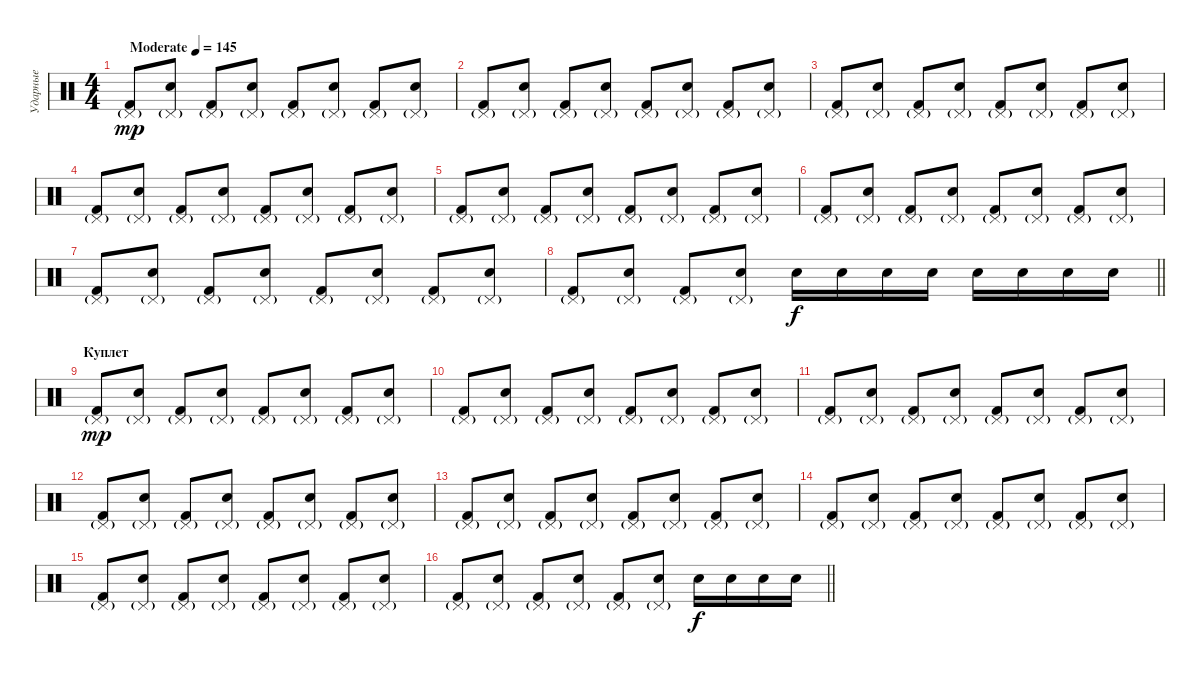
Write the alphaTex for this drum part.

\track ("Ударные" "Ударные") {instrument percussion}
\staff {score}
\articulation defaults
\ts (4 4)
\tempo (145 "Moderate")
\clef neutral
\ks c
("Pedal Hi-Hat (hit)"{g} "Kick (hit) 2").8{dy mp} ("Pedal Hi-Hat (hit)"{g} "Electric Snare (hit)").8 ("Pedal Hi-Hat (hit)"{g} "Kick (hit) 2").8 ("Pedal Hi-Hat (hit)"{g} "Electric Snare (hit)").8 ("Pedal Hi-Hat (hit)"{g} "Kick (hit) 2").8 ("Pedal Hi-Hat (hit)"{g} "Electric Snare (hit)").8 ("Pedal Hi-Hat (hit)"{g} "Kick (hit) 2").8 ("Pedal Hi-Hat (hit)"{g} "Electric Snare (hit)").8 |
("Pedal Hi-Hat (hit)"{g} "Kick (hit) 2").8 ("Pedal Hi-Hat (hit)"{g} "Electric Snare (hit)").8 ("Pedal Hi-Hat (hit)"{g} "Kick (hit) 2").8 ("Pedal Hi-Hat (hit)"{g} "Electric Snare (hit)").8 ("Pedal Hi-Hat (hit)"{g} "Kick (hit) 2").8 ("Pedal Hi-Hat (hit)"{g} "Electric Snare (hit)").8 ("Pedal Hi-Hat (hit)"{g} "Kick (hit) 2").8 ("Pedal Hi-Hat (hit)"{g} "Electric Snare (hit)").8 |
("Pedal Hi-Hat (hit)"{g} "Kick (hit) 2").8 ("Pedal Hi-Hat (hit)"{g} "Electric Snare (hit)").8 ("Pedal Hi-Hat (hit)"{g} "Kick (hit) 2").8 ("Pedal Hi-Hat (hit)"{g} "Electric Snare (hit)").8 ("Pedal Hi-Hat (hit)"{g} "Kick (hit) 2").8 ("Pedal Hi-Hat (hit)"{g} "Electric Snare (hit)").8 ("Pedal Hi-Hat (hit)"{g} "Kick (hit) 2").8 ("Pedal Hi-Hat (hit)"{g} "Electric Snare (hit)").8 |
("Pedal Hi-Hat (hit)"{g} "Kick (hit) 2").8 ("Pedal Hi-Hat (hit)"{g} "Electric Snare (hit)").8 ("Pedal Hi-Hat (hit)"{g} "Kick (hit) 2").8 ("Pedal Hi-Hat (hit)"{g} "Electric Snare (hit)").8 ("Pedal Hi-Hat (hit)"{g} "Kick (hit) 2").8 ("Pedal Hi-Hat (hit)"{g} "Electric Snare (hit)").8 ("Pedal Hi-Hat (hit)"{g} "Kick (hit) 2").8 ("Pedal Hi-Hat (hit)"{g} "Electric Snare (hit)").8 |
("Pedal Hi-Hat (hit)"{g} "Kick (hit) 2").8 ("Pedal Hi-Hat (hit)"{g} "Electric Snare (hit)").8 ("Pedal Hi-Hat (hit)"{g} "Kick (hit) 2").8 ("Pedal Hi-Hat (hit)"{g} "Electric Snare (hit)").8 ("Pedal Hi-Hat (hit)"{g} "Kick (hit) 2").8 ("Pedal Hi-Hat (hit)"{g} "Electric Snare (hit)").8 ("Pedal Hi-Hat (hit)"{g} "Kick (hit) 2").8 ("Pedal Hi-Hat (hit)"{g} "Electric Snare (hit)").8 |
("Pedal Hi-Hat (hit)"{g} "Kick (hit) 2").8 ("Pedal Hi-Hat (hit)"{g} "Electric Snare (hit)").8 ("Pedal Hi-Hat (hit)"{g} "Kick (hit) 2").8 ("Pedal Hi-Hat (hit)"{g} "Electric Snare (hit)").8 ("Pedal Hi-Hat (hit)"{g} "Kick (hit) 2").8 ("Pedal Hi-Hat (hit)"{g} "Electric Snare (hit)").8 ("Pedal Hi-Hat (hit)"{g} "Kick (hit) 2").8 ("Pedal Hi-Hat (hit)"{g} "Electric Snare (hit)").8 |
("Pedal Hi-Hat (hit)"{g} "Kick (hit) 2").8 ("Pedal Hi-Hat (hit)"{g} "Electric Snare (hit)").8 ("Pedal Hi-Hat (hit)"{g} "Kick (hit) 2").8 ("Pedal Hi-Hat (hit)"{g} "Electric Snare (hit)").8 ("Pedal Hi-Hat (hit)"{g} "Kick (hit) 2").8 ("Pedal Hi-Hat (hit)"{g} "Electric Snare (hit)").8 ("Pedal Hi-Hat (hit)"{g} "Kick (hit) 2").8 ("Pedal Hi-Hat (hit)"{g} "Electric Snare (hit)").8 |
\barLineRight lightlight
("Pedal Hi-Hat (hit)"{g} "Kick (hit) 2").8 ("Pedal Hi-Hat (hit)"{g} "Electric Snare (hit)").8 ("Pedal Hi-Hat (hit)"{g} "Kick (hit) 2").8 ("Pedal Hi-Hat (hit)"{g} "Electric Snare (hit)").8 "Snare (hit) 2".16{dy f} "Snare (hit) 2".16 "Snare (hit) 2".16 "Snare (hit) 2".16 "Snare (hit) 2".16 "Snare (hit) 2".16 "Snare (hit) 2".16 "Snare (hit) 2".16 |
\section ("" "Куплет")
("Pedal Hi-Hat (hit)"{g} "Kick (hit) 2").8{dy mp} ("Pedal Hi-Hat (hit)"{g} "Electric Snare (hit)").8 ("Pedal Hi-Hat (hit)"{g} "Kick (hit) 2").8 ("Pedal Hi-Hat (hit)"{g} "Electric Snare (hit)").8 ("Pedal Hi-Hat (hit)"{g} "Kick (hit) 2").8 ("Pedal Hi-Hat (hit)"{g} "Electric Snare (hit)").8 ("Pedal Hi-Hat (hit)"{g} "Kick (hit) 2").8 ("Pedal Hi-Hat (hit)"{g} "Electric Snare (hit)").8 |
("Pedal Hi-Hat (hit)"{g} "Kick (hit) 2").8 ("Pedal Hi-Hat (hit)"{g} "Electric Snare (hit)").8 ("Pedal Hi-Hat (hit)"{g} "Kick (hit) 2").8 ("Pedal Hi-Hat (hit)"{g} "Electric Snare (hit)").8 ("Pedal Hi-Hat (hit)"{g} "Kick (hit) 2").8 ("Pedal Hi-Hat (hit)"{g} "Electric Snare (hit)").8 ("Pedal Hi-Hat (hit)"{g} "Kick (hit) 2").8 ("Pedal Hi-Hat (hit)"{g} "Electric Snare (hit)").8 |
("Pedal Hi-Hat (hit)"{g} "Kick (hit) 2").8 ("Pedal Hi-Hat (hit)"{g} "Electric Snare (hit)").8 ("Pedal Hi-Hat (hit)"{g} "Kick (hit) 2").8 ("Pedal Hi-Hat (hit)"{g} "Electric Snare (hit)").8 ("Pedal Hi-Hat (hit)"{g} "Kick (hit) 2").8 ("Pedal Hi-Hat (hit)"{g} "Electric Snare (hit)").8 ("Pedal Hi-Hat (hit)"{g} "Kick (hit) 2").8 ("Pedal Hi-Hat (hit)"{g} "Electric Snare (hit)").8 |
("Pedal Hi-Hat (hit)"{g} "Kick (hit) 2").8 ("Pedal Hi-Hat (hit)"{g} "Electric Snare (hit)").8 ("Pedal Hi-Hat (hit)"{g} "Kick (hit) 2").8 ("Pedal Hi-Hat (hit)"{g} "Electric Snare (hit)").8 ("Pedal Hi-Hat (hit)"{g} "Kick (hit) 2").8 ("Pedal Hi-Hat (hit)"{g} "Electric Snare (hit)").8 ("Pedal Hi-Hat (hit)"{g} "Kick (hit) 2").8 ("Pedal Hi-Hat (hit)"{g} "Electric Snare (hit)").8 |
("Pedal Hi-Hat (hit)"{g} "Kick (hit) 2").8 ("Pedal Hi-Hat (hit)"{g} "Electric Snare (hit)").8 ("Pedal Hi-Hat (hit)"{g} "Kick (hit) 2").8 ("Pedal Hi-Hat (hit)"{g} "Electric Snare (hit)").8 ("Pedal Hi-Hat (hit)"{g} "Kick (hit) 2").8 ("Pedal Hi-Hat (hit)"{g} "Electric Snare (hit)").8 ("Pedal Hi-Hat (hit)"{g} "Kick (hit) 2").8 ("Pedal Hi-Hat (hit)"{g} "Electric Snare (hit)").8 |
("Pedal Hi-Hat (hit)"{g} "Kick (hit) 2").8 ("Pedal Hi-Hat (hit)"{g} "Electric Snare (hit)").8 ("Pedal Hi-Hat (hit)"{g} "Kick (hit) 2").8 ("Pedal Hi-Hat (hit)"{g} "Electric Snare (hit)").8 ("Pedal Hi-Hat (hit)"{g} "Kick (hit) 2").8 ("Pedal Hi-Hat (hit)"{g} "Electric Snare (hit)").8 ("Pedal Hi-Hat (hit)"{g} "Kick (hit) 2").8 ("Pedal Hi-Hat (hit)"{g} "Electric Snare (hit)").8 |
("Pedal Hi-Hat (hit)"{g} "Kick (hit) 2").8 ("Pedal Hi-Hat (hit)"{g} "Electric Snare (hit)").8 ("Pedal Hi-Hat (hit)"{g} "Kick (hit) 2").8 ("Pedal Hi-Hat (hit)"{g} "Electric Snare (hit)").8 ("Pedal Hi-Hat (hit)"{g} "Kick (hit) 2").8 ("Pedal Hi-Hat (hit)"{g} "Electric Snare (hit)").8 ("Pedal Hi-Hat (hit)"{g} "Kick (hit) 2").8 ("Pedal Hi-Hat (hit)"{g} "Electric Snare (hit)").8 |
\barLineRight lightlight
("Pedal Hi-Hat (hit)"{g} "Kick (hit) 2").8 ("Pedal Hi-Hat (hit)"{g} "Electric Snare (hit)").8 ("Pedal Hi-Hat (hit)"{g} "Kick (hit) 2").8 ("Pedal Hi-Hat (hit)"{g} "Electric Snare (hit)").8 ("Pedal Hi-Hat (hit)"{g} "Kick (hit) 2").8 ("Pedal Hi-Hat (hit)"{g} "Electric Snare (hit)").8 "Snare (hit) 2".16{dy f} "Snare (hit) 2".16 "Snare (hit) 2".16 "Snare (hit) 2".16
